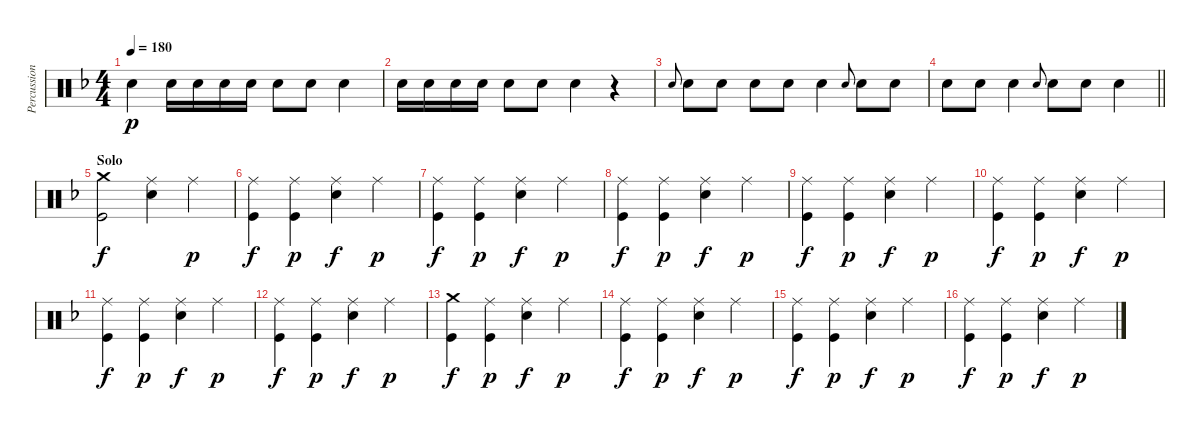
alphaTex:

\track ("Percussion" "Percussion") {instrument percussion}
\staff {score}
\articulation defaults
\ts (4 4)
\tempo 180
\clef neutral
\ks f "Snare (hit) 2".4{dy p} "Snare (hit) 2".16 "Snare (hit) 2".16 "Snare (hit) 2".16 "Snare (hit) 2".16 "Snare (hit) 2".8 "Snare (hit) 2".8 "Snare (hit) 2".4
|
"Snare (hit) 2".16 "Snare (hit) 2".16 "Snare (hit) 2".16 "Snare (hit) 2".16 "Snare (hit) 2".8 "Snare (hit) 2".8 "Snare (hit) 2".4 r.4 |
"Snare (hit) 2".8{gr onbeat} "Snare (hit) 2".8 "Snare (hit) 2".8 "Snare (hit) 2".8 "Snare (hit) 2".8 "Snare (hit) 2".4 "Snare (hit) 2".8{gr onbeat} "Snare (hit) 2".8 "Snare (hit) 2".8 |
\barLineRight lightlight "Snare (hit) 2".8 "Snare (hit) 2".8 "Snare (hit) 2".4 "Snare (hit) 2".8{gr onbeat} "Snare (hit) 2".8 "Snare (hit) 2".8 "Snare (hit) 2".4
|
\section ("" "Solo")
("Crash medium (hit)" "Kick (hit)").2{dy f} ("Ride (middle)" "Snare (hit) 2").4 "Ride (middle)".4{dy p} |
("Ride (middle)" "Kick (hit)").4{dy f} ("Ride (middle)" "Kick (hit)").4{dy p} ("Ride (middle)" "Snare (hit) 2").4{dy f} "Ride (middle)".4{dy p} |
("Ride (middle)" "Kick (hit)").4{dy f} ("Ride (middle)" "Kick (hit)").4{dy p} ("Ride (middle)" "Snare (hit) 2").4{dy f} "Ride (middle)".4{dy p} |
("Ride (middle)" "Kick (hit)").4{dy f} ("Ride (middle)" "Kick (hit)").4{dy p} ("Ride (middle)" "Snare (hit) 2").4{dy f} "Ride (middle)".4{dy p} |
("Ride (middle)" "Kick (hit)").4{dy f} ("Ride (middle)" "Kick (hit)").4{dy p} ("Ride (middle)" "Snare (hit) 2").4{dy f} "Ride (middle)".4{dy p} |
("Ride (middle)" "Kick (hit)").4{dy f} ("Ride (middle)" "Kick (hit)").4{dy p} ("Ride (middle)" "Snare (hit) 2").4{dy f} "Ride (middle)".4{dy p} |
("Ride (middle)" "Kick (hit)").4{dy f} ("Ride (middle)" "Kick (hit)").4{dy p} ("Ride (middle)" "Snare (hit) 2").4{dy f} "Ride (middle)".4{dy p} |
("Ride (middle)" "Kick (hit)").4{dy f} ("Ride (middle)" "Kick (hit)").4{dy p} ("Ride (middle)" "Snare (hit) 2").4{dy f} "Ride (middle)".4{dy p} |
("Crash medium (hit)" "Kick (hit)").4{dy f} ("Ride (middle)" "Kick (hit)").4{dy p} ("Ride (middle)" "Snare (hit) 2").4{dy f} "Ride (middle)".4{dy p} |
("Ride (middle)" "Kick (hit)").4{dy f} ("Ride (middle)" "Kick (hit)").4{dy p} ("Ride (middle)" "Snare (hit) 2").4{dy f} "Ride (middle)".4{dy p} |
("Ride (middle)" "Kick (hit)").4{dy f} ("Ride (middle)" "Kick (hit)").4{dy p} ("Ride (middle)" "Snare (hit) 2").4{dy f} "Ride (middle)".4{dy p} |
("Ride (middle)" "Kick (hit)").4{dy f} ("Ride (middle)" "Kick (hit)").4{dy p} ("Ride (middle)" "Snare (hit) 2").4{dy f} "Ride (middle)".4{dy p}
